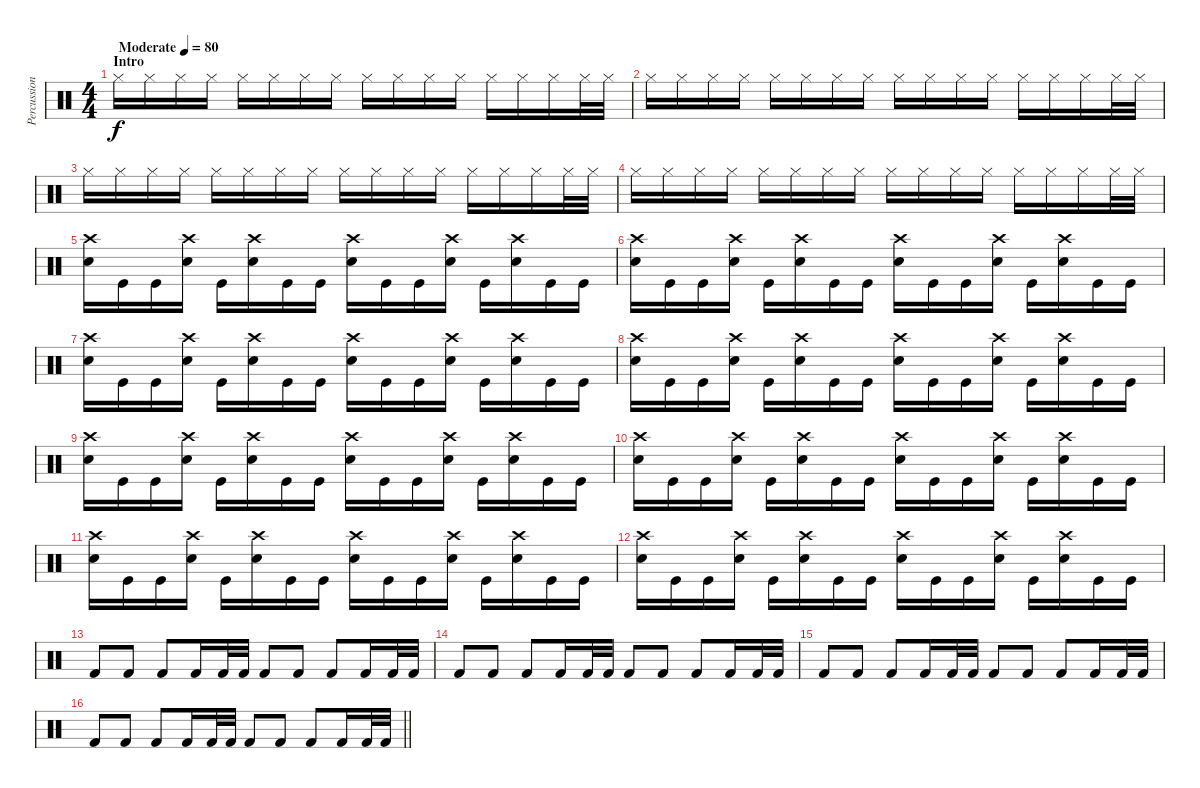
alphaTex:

\track ("Percussion" "Percussion") {instrument percussion}
\staff {score}
\articulation defaults
\ts (4 4)
\section ("" "Intro")
\tempo (80 "Moderate")
\clef neutral
\ks c "Hi-Hat (closed)".16{dy f} "Hi-Hat (closed)".16 "Hi-Hat (closed)".16 "Hi-Hat (closed)".16 "Hi-Hat (closed)".16 "Hi-Hat (closed)".16 "Hi-Hat (closed)".16 "Hi-Hat (closed)".16 "Hi-Hat (closed)".16 "Hi-Hat (closed)".16 "Hi-Hat (closed)".16 "Hi-Hat (closed)".16 "Hi-Hat (closed)".16 "Hi-Hat (closed)".16 "Hi-Hat (closed)".16 "Hi-Hat (closed)".32 "Hi-Hat (closed)".32
|
"Hi-Hat (closed)".16 "Hi-Hat (closed)".16 "Hi-Hat (closed)".16 "Hi-Hat (closed)".16 "Hi-Hat (closed)".16 "Hi-Hat (closed)".16 "Hi-Hat (closed)".16 "Hi-Hat (closed)".16 "Hi-Hat (closed)".16 "Hi-Hat (closed)".16 "Hi-Hat (closed)".16 "Hi-Hat (closed)".16 "Hi-Hat (closed)".16 "Hi-Hat (closed)".16 "Hi-Hat (closed)".16 "Hi-Hat (closed)".32 "Hi-Hat (closed)".32 |
"Hi-Hat (closed)".16 "Hi-Hat (closed)".16 "Hi-Hat (closed)".16 "Hi-Hat (closed)".16 "Hi-Hat (closed)".16 "Hi-Hat (closed)".16 "Hi-Hat (closed)".16 "Hi-Hat (closed)".16 "Hi-Hat (closed)".16 "Hi-Hat (closed)".16 "Hi-Hat (closed)".16 "Hi-Hat (closed)".16 "Hi-Hat (closed)".16 "Hi-Hat (closed)".16 "Hi-Hat (closed)".16 "Hi-Hat (closed)".32 "Hi-Hat (closed)".32 |
"Hi-Hat (closed)".16 "Hi-Hat (closed)".16 "Hi-Hat (closed)".16 "Hi-Hat (closed)".16 "Hi-Hat (closed)".16 "Hi-Hat (closed)".16 "Hi-Hat (closed)".16 "Hi-Hat (closed)".16 "Hi-Hat (closed)".16 "Hi-Hat (closed)".16 "Hi-Hat (closed)".16 "Hi-Hat (closed)".16 "Hi-Hat (closed)".16 "Hi-Hat (closed)".16 "Hi-Hat (closed)".16 "Hi-Hat (closed)".32 "Hi-Hat (closed)".32 |
("Crash high (hit)" "Electric Snare (hit)").16 "Kick (hit)".16 "Kick (hit)".16 ("Crash high (hit)" "Electric Snare (hit)").16 "Kick (hit)".16 ("Crash high (hit)" "Electric Snare (hit)").16 "Kick (hit)".16 "Kick (hit)".16 ("Crash high (hit)" "Electric Snare (hit)").16 "Kick (hit)".16 "Kick (hit)".16 ("Crash high (hit)" "Electric Snare (hit)").16 "Kick (hit)".16 ("Crash high (hit)" "Electric Snare (hit)").16 "Kick (hit)".16 "Kick (hit)".16 |
("Crash high (hit)" "Electric Snare (hit)").16 "Kick (hit)".16 "Kick (hit)".16 ("Crash high (hit)" "Electric Snare (hit)").16 "Kick (hit)".16 ("Crash high (hit)" "Electric Snare (hit)").16 "Kick (hit)".16 "Kick (hit)".16 ("Crash high (hit)" "Electric Snare (hit)").16 "Kick (hit)".16 "Kick (hit)".16 ("Crash high (hit)" "Electric Snare (hit)").16 "Kick (hit)".16 ("Crash high (hit)" "Electric Snare (hit)").16 "Kick (hit)".16 "Kick (hit)".16 |
("Crash high (hit)" "Electric Snare (hit)").16 "Kick (hit)".16 "Kick (hit)".16 ("Crash high (hit)" "Electric Snare (hit)").16 "Kick (hit)".16 ("Crash high (hit)" "Electric Snare (hit)").16 "Kick (hit)".16 "Kick (hit)".16 ("Crash high (hit)" "Electric Snare (hit)").16 "Kick (hit)".16 "Kick (hit)".16 ("Crash high (hit)" "Electric Snare (hit)").16 "Kick (hit)".16 ("Crash high (hit)" "Electric Snare (hit)").16 "Kick (hit)".16 "Kick (hit)".16 |
("Crash high (hit)" "Electric Snare (hit)").16 "Kick (hit)".16 "Kick (hit)".16 ("Crash high (hit)" "Electric Snare (hit)").16 "Kick (hit)".16 ("Crash high (hit)" "Electric Snare (hit)").16 "Kick (hit)".16 "Kick (hit)".16 ("Crash high (hit)" "Electric Snare (hit)").16 "Kick (hit)".16 "Kick (hit)".16 ("Crash high (hit)" "Electric Snare (hit)").16 "Kick (hit)".16 ("Crash high (hit)" "Electric Snare (hit)").16 "Kick (hit)".16 "Kick (hit)".16 |
("Crash high (hit)" "Electric Snare (hit)").16 "Kick (hit)".16 "Kick (hit)".16 ("Crash high (hit)" "Electric Snare (hit)").16 "Kick (hit)".16 ("Crash high (hit)" "Electric Snare (hit)").16 "Kick (hit)".16 "Kick (hit)".16 ("Crash high (hit)" "Electric Snare (hit)").16 "Kick (hit)".16 "Kick (hit)".16 ("Crash high (hit)" "Electric Snare (hit)").16 "Kick (hit)".16 ("Crash high (hit)" "Electric Snare (hit)").16 "Kick (hit)".16 "Kick (hit)".16 |
("Crash high (hit)" "Electric Snare (hit)").16 "Kick (hit)".16 "Kick (hit)".16 ("Crash high (hit)" "Electric Snare (hit)").16 "Kick (hit)".16 ("Crash high (hit)" "Electric Snare (hit)").16 "Kick (hit)".16 "Kick (hit)".16 ("Crash high (hit)" "Electric Snare (hit)").16 "Kick (hit)".16 "Kick (hit)".16 ("Crash high (hit)" "Electric Snare (hit)").16 "Kick (hit)".16 ("Crash high (hit)" "Electric Snare (hit)").16 "Kick (hit)".16 "Kick (hit)".16 |
("Crash high (hit)" "Electric Snare (hit)").16 "Kick (hit)".16 "Kick (hit)".16 ("Crash high (hit)" "Electric Snare (hit)").16 "Kick (hit)".16 ("Crash high (hit)" "Electric Snare (hit)").16 "Kick (hit)".16 "Kick (hit)".16 ("Crash high (hit)" "Electric Snare (hit)").16 "Kick (hit)".16 "Kick (hit)".16 ("Crash high (hit)" "Electric Snare (hit)").16 "Kick (hit)".16 ("Crash high (hit)" "Electric Snare (hit)").16 "Kick (hit)".16 "Kick (hit)".16 |
("Crash high (hit)" "Electric Snare (hit)").16 "Kick (hit)".16 "Kick (hit)".16 ("Crash high (hit)" "Electric Snare (hit)").16 "Kick (hit)".16 ("Crash high (hit)" "Electric Snare (hit)").16 "Kick (hit)".16 "Kick (hit)".16 ("Crash high (hit)" "Electric Snare (hit)").16 "Kick (hit)".16 "Kick (hit)".16 ("Crash high (hit)" "Electric Snare (hit)").16 "Kick (hit)".16 ("Crash high (hit)" "Electric Snare (hit)").16 "Kick (hit)".16 "Kick (hit)".16 |
"Kick (hit) 2".8 "Kick (hit) 2".8 "Kick (hit) 2".8 "Kick (hit) 2".16 "Kick (hit) 2".32 "Kick (hit) 2".32 "Kick (hit) 2".8 "Kick (hit) 2".8 "Kick (hit) 2".8 "Kick (hit) 2".16 "Kick (hit) 2".32 "Kick (hit) 2".32 |
"Kick (hit) 2".8 "Kick (hit) 2".8 "Kick (hit) 2".8 "Kick (hit) 2".16 "Kick (hit) 2".32 "Kick (hit) 2".32 "Kick (hit) 2".8 "Kick (hit) 2".8 "Kick (hit) 2".8 "Kick (hit) 2".16 "Kick (hit) 2".32 "Kick (hit) 2".32 |
"Kick (hit) 2".8 "Kick (hit) 2".8 "Kick (hit) 2".8 "Kick (hit) 2".16 "Kick (hit) 2".32 "Kick (hit) 2".32 "Kick (hit) 2".8 "Kick (hit) 2".8 "Kick (hit) 2".8 "Kick (hit) 2".16 "Kick (hit) 2".32 "Kick (hit) 2".32 |
\barLineRight lightlight "Kick (hit) 2".8 "Kick (hit) 2".8 "Kick (hit) 2".8 "Kick (hit) 2".16 "Kick (hit) 2".32 "Kick (hit) 2".32 "Kick (hit) 2".8 "Kick (hit) 2".8 "Kick (hit) 2".8 "Kick (hit) 2".16 "Kick (hit) 2".32 "Kick (hit) 2".32
